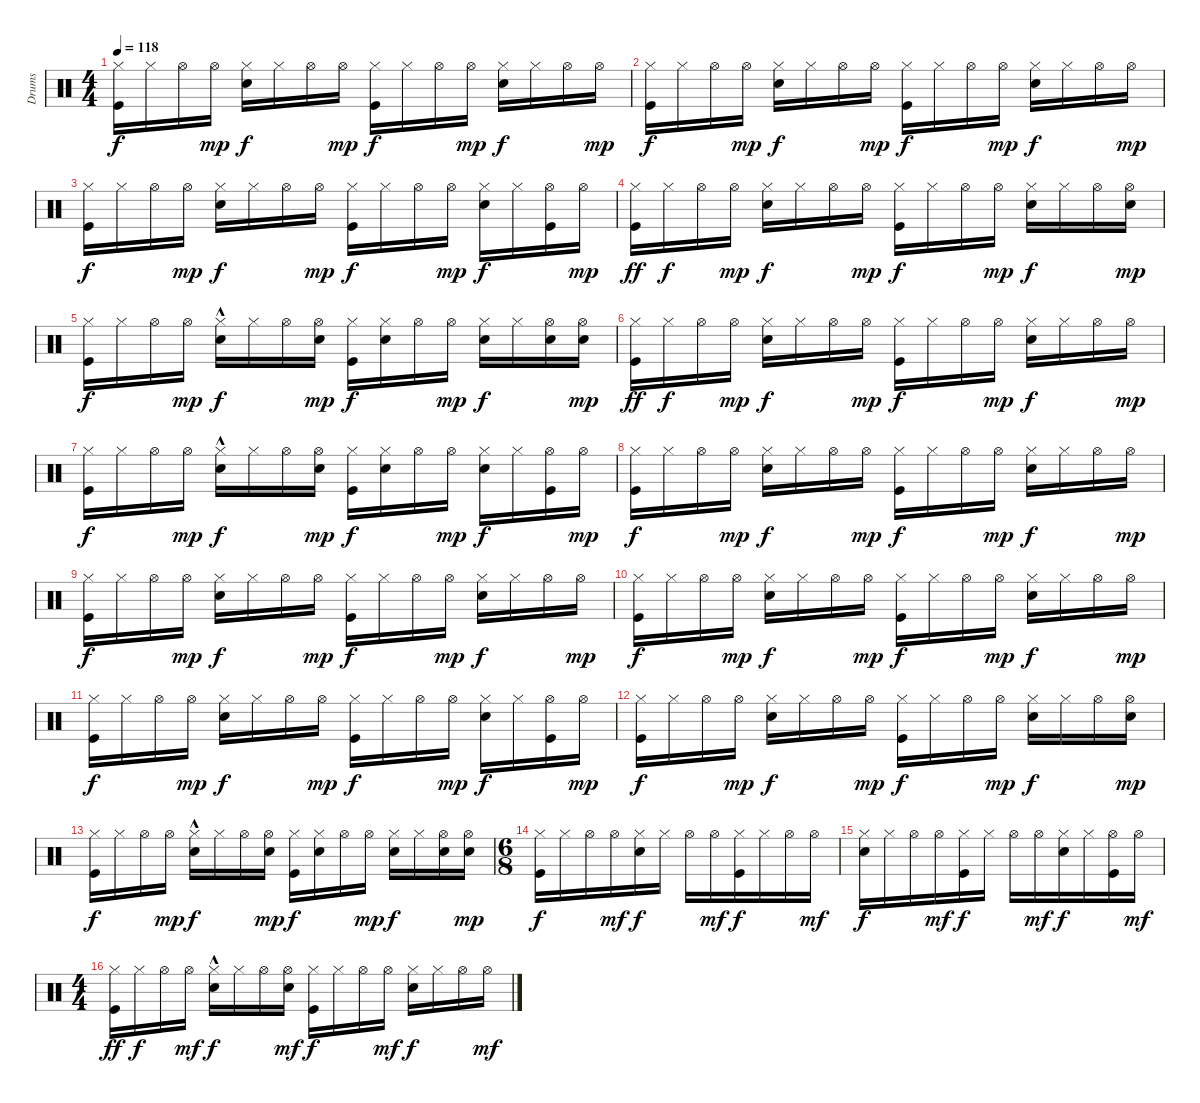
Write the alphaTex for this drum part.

\track ("Drums" "Drums") {instrument percussion}
\staff {score}
\articulation defaults
\ts (4 4)
\tempo 118
\clef neutral
\ks c
("Hi-Hat (closed)" "Kick (hit)").16{dy f} "Hi-Hat (closed)".16 "Hi-Hat (open)".16 "Hi-Hat (open)".16{dy mp} ("Hi-Hat (closed)" "Electric Snare (hit)").16{dy f} "Hi-Hat (closed)".16 "Hi-Hat (open)".16 "Hi-Hat (open)".16{dy mp} ("Kick (hit)" "Hi-Hat (closed)").16{dy f} "Hi-Hat (closed)".16 "Hi-Hat (open)".16 "Hi-Hat (open)".16{dy mp} ("Hi-Hat (closed)" "Electric Snare (hit)").16{dy f} "Hi-Hat (closed)".16 "Hi-Hat (open)".16 "Hi-Hat (open)".16{dy mp} |
("Hi-Hat (closed)" "Kick (hit)").16{dy f} "Hi-Hat (closed)".16 "Hi-Hat (open)".16 "Hi-Hat (open)".16{dy mp} ("Hi-Hat (closed)" "Electric Snare (hit)").16{dy f} "Hi-Hat (closed)".16 "Hi-Hat (open)".16 "Hi-Hat (open)".16{dy mp} ("Kick (hit)" "Hi-Hat (closed)").16{dy f} "Hi-Hat (closed)".16 "Hi-Hat (open)".16 "Hi-Hat (open)".16{dy mp} ("Hi-Hat (closed)" "Electric Snare (hit)").16{dy f} "Hi-Hat (closed)".16 "Hi-Hat (open)".16 "Hi-Hat (open)".16{dy mp} |
("Hi-Hat (closed)" "Kick (hit)").16{dy f} "Hi-Hat (closed)".16 "Hi-Hat (open)".16 "Hi-Hat (open)".16{dy mp} ("Electric Snare (hit)" "Hi-Hat (closed)").16{dy f} "Hi-Hat (closed)".16 "Hi-Hat (open)".16 "Hi-Hat (open)".16{dy mp} ("Kick (hit)" "Hi-Hat (closed)").16{dy f} "Hi-Hat (closed)".16 "Hi-Hat (open)".16 "Hi-Hat (open)".16{dy mp} ("Hi-Hat (closed)" "Electric Snare (hit)").16{dy f} "Hi-Hat (closed)".16 ("Kick (hit)" "Hi-Hat (open)").16 "Hi-Hat (open)".16{dy mp} |
("Hi-Hat (closed)" "Kick (hit)").16{dy ff} "Hi-Hat (closed)".16{dy f} "Hi-Hat (open)".16 "Hi-Hat (open)".16{dy mp} ("Hi-Hat (closed)" "Electric Snare (hit)").16{dy f} "Hi-Hat (closed)".16 "Hi-Hat (open)".16 "Hi-Hat (open)".16{dy mp} ("Kick (hit)" "Hi-Hat (closed)").16{dy f} "Hi-Hat (closed)".16 "Hi-Hat (open)".16 "Hi-Hat (open)".16{dy mp} ("Hi-Hat (closed)" "Electric Snare (hit)").16{dy f} "Hi-Hat (closed)".16 "Hi-Hat (open)".16 ("Electric Snare (hit)" "Hi-Hat (open)").16{dy mp} |
("Hi-Hat (closed)" "Kick (hit)").16{dy f} "Hi-Hat (closed)".16 "Hi-Hat (open)".16 "Hi-Hat (open)".16{dy mp} ("Hi-Hat (closed)" "Electric Snare (hit)"{hac}).16{dy f} "Hi-Hat (closed)".16 "Hi-Hat (open)".16 ("Electric Snare (hit)" "Hi-Hat (open)").16{dy mp} ("Kick (hit)" "Hi-Hat (closed)").16{dy f} ("Electric Snare (hit)" "Hi-Hat (closed)").16 "Hi-Hat (open)".16 "Hi-Hat (open)".16{dy mp} ("Hi-Hat (closed)" "Electric Snare (hit)").16{dy f} "Hi-Hat (closed)".16 ("Electric Snare (hit)" "Hi-Hat (open)").16 ("Electric Snare (hit)" "Hi-Hat (open)").16{dy mp} |
("Hi-Hat (closed)" "Kick (hit)").16{dy ff} "Hi-Hat (closed)".16{dy f} "Hi-Hat (open)".16 "Hi-Hat (open)".16{dy mp} ("Hi-Hat (closed)" "Electric Snare (hit)").16{dy f} "Hi-Hat (closed)".16 "Hi-Hat (open)".16 "Hi-Hat (open)".16{dy mp} ("Kick (hit)" "Hi-Hat (closed)").16{dy f} "Hi-Hat (closed)".16 "Hi-Hat (open)".16 "Hi-Hat (open)".16{dy mp} ("Hi-Hat (closed)" "Electric Snare (hit)").16{dy f} "Hi-Hat (closed)".16 "Hi-Hat (open)".16 "Hi-Hat (open)".16{dy mp} |
("Hi-Hat (closed)" "Kick (hit)").16{dy f} "Hi-Hat (closed)".16 "Hi-Hat (open)".16 "Hi-Hat (open)".16{dy mp} ("Hi-Hat (closed)" "Electric Snare (hit)"{hac}).16{dy f} "Hi-Hat (closed)".16 "Hi-Hat (open)".16 ("Electric Snare (hit)" "Hi-Hat (open)").16{dy mp} ("Kick (hit)" "Hi-Hat (closed)").16{dy f} ("Electric Snare (hit)" "Hi-Hat (closed)").16 "Hi-Hat (open)".16 "Hi-Hat (open)".16{dy mp} ("Hi-Hat (closed)" "Electric Snare (hit)").16{dy f} "Hi-Hat (closed)".16 ("Kick (hit)" "Hi-Hat (open)").16 "Hi-Hat (open)".16{dy mp} |
("Hi-Hat (closed)" "Kick (hit)").16{dy f} "Hi-Hat (closed)".16 "Hi-Hat (open)".16 "Hi-Hat (open)".16{dy mp} ("Hi-Hat (closed)" "Electric Snare (hit)").16{dy f} "Hi-Hat (closed)".16 "Hi-Hat (open)".16 "Hi-Hat (open)".16{dy mp} ("Kick (hit)" "Hi-Hat (closed)").16{dy f} "Hi-Hat (closed)".16 "Hi-Hat (open)".16 "Hi-Hat (open)".16{dy mp} ("Hi-Hat (closed)" "Electric Snare (hit)").16{dy f} "Hi-Hat (closed)".16 "Hi-Hat (open)".16 "Hi-Hat (open)".16{dy mp} |
("Hi-Hat (closed)" "Kick (hit)").16{dy f} "Hi-Hat (closed)".16 "Hi-Hat (open)".16 "Hi-Hat (open)".16{dy mp} ("Hi-Hat (closed)" "Electric Snare (hit)").16{dy f} "Hi-Hat (closed)".16 "Hi-Hat (open)".16 "Hi-Hat (open)".16{dy mp} ("Kick (hit)" "Hi-Hat (closed)").16{dy f} "Hi-Hat (closed)".16 "Hi-Hat (open)".16 "Hi-Hat (open)".16{dy mp} ("Hi-Hat (closed)" "Electric Snare (hit)").16{dy f} "Hi-Hat (closed)".16 "Hi-Hat (open)".16 "Hi-Hat (open)".16{dy mp} |
("Hi-Hat (closed)" "Kick (hit)").16{dy f} "Hi-Hat (closed)".16 "Hi-Hat (open)".16 "Hi-Hat (open)".16{dy mp} ("Hi-Hat (closed)" "Electric Snare (hit)").16{dy f} "Hi-Hat (closed)".16 "Hi-Hat (open)".16 "Hi-Hat (open)".16{dy mp} ("Kick (hit)" "Hi-Hat (closed)").16{dy f} "Hi-Hat (closed)".16 "Hi-Hat (open)".16 "Hi-Hat (open)".16{dy mp} ("Hi-Hat (closed)" "Electric Snare (hit)").16{dy f} "Hi-Hat (closed)".16 "Hi-Hat (open)".16 "Hi-Hat (open)".16{dy mp} |
("Hi-Hat (closed)" "Kick (hit)").16{dy f} "Hi-Hat (closed)".16 "Hi-Hat (open)".16 "Hi-Hat (open)".16{dy mp} ("Electric Snare (hit)" "Hi-Hat (closed)").16{dy f} "Hi-Hat (closed)".16 "Hi-Hat (open)".16 "Hi-Hat (open)".16{dy mp} ("Kick (hit)" "Hi-Hat (closed)").16{dy f} "Hi-Hat (closed)".16 "Hi-Hat (open)".16 "Hi-Hat (open)".16{dy mp} ("Hi-Hat (closed)" "Electric Snare (hit)").16{dy f} "Hi-Hat (closed)".16 ("Kick (hit)" "Hi-Hat (open)").16 "Hi-Hat (open)".16{dy mp} |
("Hi-Hat (closed)" "Kick (hit)").16{dy f} "Hi-Hat (closed)".16 "Hi-Hat (open)".16 "Hi-Hat (open)".16{dy mp} ("Hi-Hat (closed)" "Electric Snare (hit)").16{dy f} "Hi-Hat (closed)".16 "Hi-Hat (open)".16 "Hi-Hat (open)".16{dy mp} ("Kick (hit)" "Hi-Hat (closed)").16{dy f} "Hi-Hat (closed)".16 "Hi-Hat (open)".16 "Hi-Hat (open)".16{dy mp} ("Hi-Hat (closed)" "Electric Snare (hit)").16{dy f} "Hi-Hat (closed)".16 "Hi-Hat (open)".16 ("Electric Snare (hit)" "Hi-Hat (open)").16{dy mp} |
("Hi-Hat (closed)" "Kick (hit)").16{dy f} "Hi-Hat (closed)".16 "Hi-Hat (open)".16 "Hi-Hat (open)".16{dy mp} ("Hi-Hat (closed)" "Electric Snare (hit)"{hac}).16{dy f} "Hi-Hat (closed)".16 "Hi-Hat (open)".16 ("Electric Snare (hit)" "Hi-Hat (open)").16{dy mp} ("Kick (hit)" "Hi-Hat (closed)").16{dy f} ("Electric Snare (hit)" "Hi-Hat (closed)").16 "Hi-Hat (open)".16 "Hi-Hat (open)".16{dy mp} ("Hi-Hat (closed)" "Electric Snare (hit)").16{dy f} "Hi-Hat (closed)".16 ("Electric Snare (hit)" "Hi-Hat (open)").16 ("Electric Snare (hit)" "Hi-Hat (open)").16{dy mp} |
\ts (6 8)
("Hi-Hat (closed)" "Kick (hit)").16{dy f} "Hi-Hat (closed)".16 "Hi-Hat (open)".16 "Hi-Hat (open)".16{dy mf} ("Electric Snare (hit)" "Hi-Hat (closed)").16{dy f} "Hi-Hat (closed)".16 "Hi-Hat (open)".16 "Hi-Hat (open)".16{dy mf} ("Kick (hit)" "Hi-Hat (closed)").16{dy f} "Hi-Hat (closed)".16 "Hi-Hat (open)".16 "Hi-Hat (open)".16{dy mf} |
("Electric Snare (hit)" "Hi-Hat (closed)").16{dy f} "Hi-Hat (closed)".16 "Hi-Hat (open)".16 "Hi-Hat (open)".16{dy mf} ("Kick (hit)" "Hi-Hat (closed)").16{dy f} "Hi-Hat (closed)".16 "Hi-Hat (open)".16 "Hi-Hat (open)".16{dy mf} ("Electric Snare (hit)" "Hi-Hat (closed)").16{dy f} "Hi-Hat (closed)".16 ("Kick (hit)" "Hi-Hat (open)").16 "Hi-Hat (open)".16{dy mf} |
\ts (4 4)
("Kick (hit)" "Hi-Hat (closed)").16{dy ff} "Hi-Hat (closed)".16{dy f} "Hi-Hat (open)".16 "Hi-Hat (open)".16{dy mf} ("Electric Snare (hit)"{hac} "Hi-Hat (closed)").16{dy f} "Hi-Hat (closed)".16 "Hi-Hat (open)".16 ("Hi-Hat (open)" "Electric Snare (hit)").16{dy mf} ("Hi-Hat (closed)" "Kick (hit)").16{dy f} "Hi-Hat (closed)".16 "Hi-Hat (open)".16 "Hi-Hat (open)".16{dy mf} ("Electric Snare (hit)" "Hi-Hat (closed)").16{dy f} "Hi-Hat (closed)".16 "Hi-Hat (open)".16 "Hi-Hat (open)".16{dy mf}
